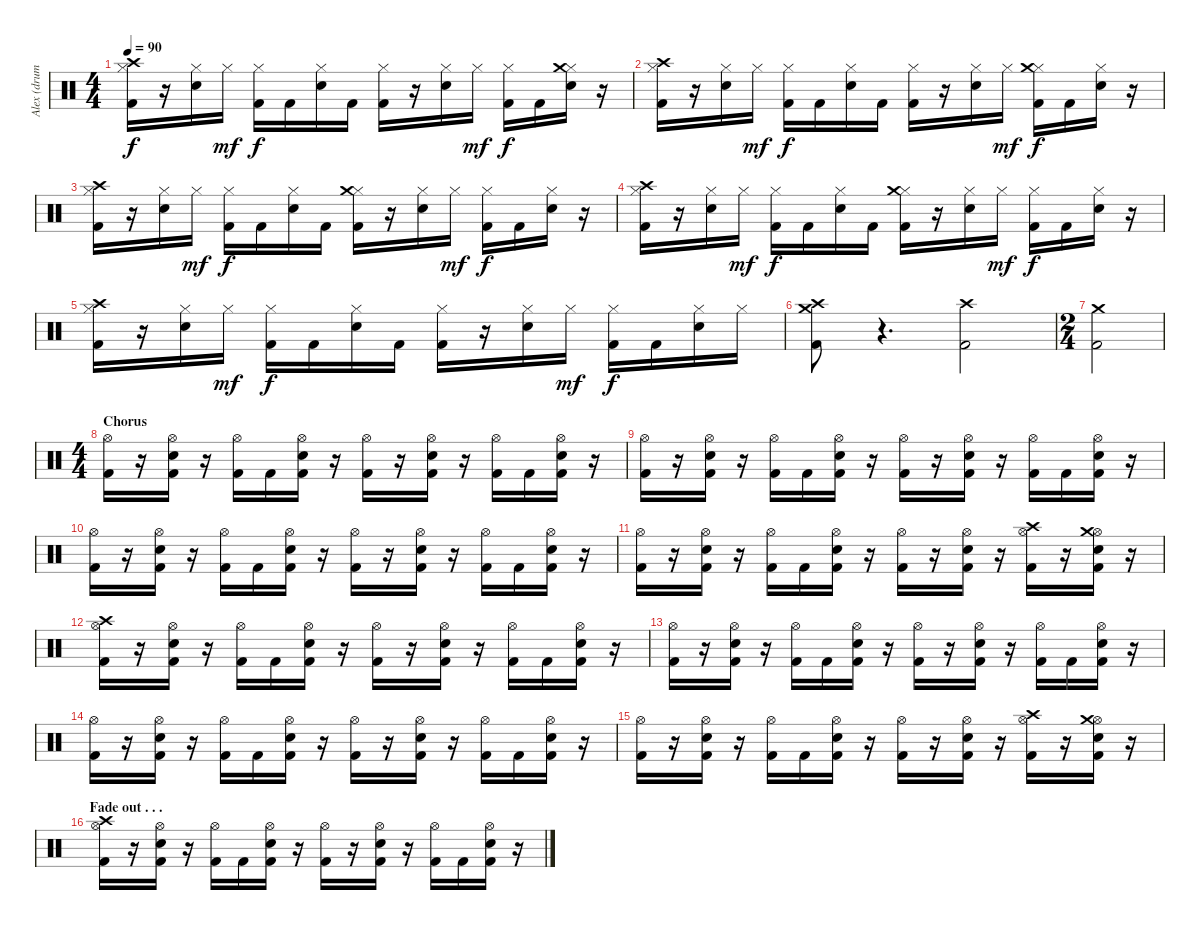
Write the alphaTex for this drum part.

\track ("Alex (drums)" "Alex (drum") {instrument percussion}
\staff {score}
\articulation defaults
\ts (4 4)
\tempo 90
\clef neutral
\ks c
("Hi-Hat (closed)" "Kick (hit) 2" "Crash high (hit)").16{dy f} r.16 ("Hi-Hat (closed)" "Snare (hit) 2").16 "Hi-Hat (closed)".16{dy mf} ("Hi-Hat (closed)" "Kick (hit) 2").16{dy f} "Kick (hit) 2".16 ("Hi-Hat (closed)" "Snare (hit) 2").16 "Kick (hit) 2".16 ("Hi-Hat (closed)" "Kick (hit) 2").16 r.16 ("Hi-Hat (closed)" "Snare (hit) 2").16 "Hi-Hat (closed)".16{dy mf} ("Hi-Hat (closed)" "Kick (hit) 2").16{dy f} "Kick (hit) 2".16 ("Hi-Hat (closed)" "Snare (hit) 2" "Crash medium (hit)").16 r.16 |
("Hi-Hat (closed)" "Kick (hit) 2" "Crash high (hit)").16 r.16 ("Hi-Hat (closed)" "Snare (hit) 2").16 "Hi-Hat (closed)".16{dy mf} ("Hi-Hat (closed)" "Kick (hit) 2").16{dy f} "Kick (hit) 2".16 ("Hi-Hat (closed)" "Snare (hit) 2").16 "Kick (hit) 2".16 ("Hi-Hat (closed)" "Kick (hit) 2").16 r.16 ("Hi-Hat (closed)" "Snare (hit) 2").16 "Hi-Hat (closed)".16{dy mf} ("Hi-Hat (closed)" "Kick (hit) 2" "Crash medium (hit)").16{dy f} "Kick (hit) 2".16 ("Hi-Hat (closed)" "Snare (hit) 2").16 r.16 |
("Hi-Hat (closed)" "Kick (hit) 2" "Crash high (hit)").16 r.16 ("Hi-Hat (closed)" "Snare (hit) 2").16 "Hi-Hat (closed)".16{dy mf} ("Hi-Hat (closed)" "Kick (hit) 2").16{dy f} "Kick (hit) 2".16 ("Hi-Hat (closed)" "Snare (hit) 2").16 "Kick (hit) 2".16 ("Hi-Hat (closed)" "Kick (hit) 2" "Crash medium (hit)").16 r.16 ("Hi-Hat (closed)" "Snare (hit) 2").16 "Hi-Hat (closed)".16{dy mf} ("Hi-Hat (closed)" "Kick (hit) 2").16{dy f} "Kick (hit) 2".16 ("Hi-Hat (closed)" "Snare (hit) 2").16 r.16 |
("Hi-Hat (closed)" "Kick (hit) 2" "Crash high (hit)").16 r.16 ("Hi-Hat (closed)" "Snare (hit) 2").16 "Hi-Hat (closed)".16{dy mf} ("Hi-Hat (closed)" "Kick (hit) 2").16{dy f} "Kick (hit) 2".16 ("Hi-Hat (closed)" "Snare (hit) 2").16 "Kick (hit) 2".16 ("Hi-Hat (closed)" "Kick (hit) 2" "Crash medium (hit)").16 r.16 ("Hi-Hat (closed)" "Snare (hit) 2").16 "Hi-Hat (closed)".16{dy mf} ("Hi-Hat (closed)" "Kick (hit) 2").16{dy f} "Kick (hit) 2".16 ("Hi-Hat (closed)" "Snare (hit) 2").16 r.16 |
("Hi-Hat (closed)" "Kick (hit) 2" "Crash high (hit)").16 r.16 ("Hi-Hat (closed)" "Snare (hit) 2").16 "Hi-Hat (closed)".16{dy mf} ("Hi-Hat (closed)" "Kick (hit) 2").16{dy f} "Kick (hit) 2".16 ("Hi-Hat (closed)" "Snare (hit) 2").16 "Kick (hit) 2".16 ("Hi-Hat (closed)" "Kick (hit) 2").16 r.16 ("Hi-Hat (closed)" "Snare (hit) 2").16 "Hi-Hat (closed)".16{dy mf} ("Hi-Hat (closed)" "Kick (hit) 2").16{dy f} "Kick (hit) 2".16 ("Hi-Hat (closed)" "Snare (hit) 2").16 "Hi-Hat (closed)".16 |
("Kick (hit) 2" "Crash medium (hit)" "Crash high (hit)").8 r.4{d} ("Kick (hit) 2" "Crash high (hit)").2 |
\ts (2 4)
("Kick (hit) 2" "Crash medium (hit)").2 |
\ts (4 4)
\section ("" "Chorus")
("Hi-Hat (open)" "Kick (hit) 2").16 r.16 ("Hi-Hat (open)" "Snare (hit) 2" "Kick (hit) 2").16 r.16 ("Hi-Hat (open)" "Kick (hit) 2").16 "Kick (hit) 2".16 ("Hi-Hat (open)" "Snare (hit) 2" "Kick (hit) 2").16 r.16 ("Hi-Hat (open)" "Kick (hit) 2").16 r.16 ("Hi-Hat (open)" "Snare (hit) 2" "Kick (hit) 2").16 r.16 ("Hi-Hat (open)" "Kick (hit) 2").16 "Kick (hit) 2".16 ("Hi-Hat (open)" "Snare (hit) 2" "Kick (hit) 2").16 r.16 |
("Hi-Hat (open)" "Kick (hit) 2").16 r.16 ("Hi-Hat (open)" "Snare (hit) 2" "Kick (hit) 2").16 r.16 ("Hi-Hat (open)" "Kick (hit) 2").16 "Kick (hit) 2".16 ("Hi-Hat (open)" "Snare (hit) 2" "Kick (hit) 2").16 r.16 ("Hi-Hat (open)" "Kick (hit) 2").16 r.16 ("Hi-Hat (open)" "Snare (hit) 2" "Kick (hit) 2").16 r.16 ("Hi-Hat (open)" "Kick (hit) 2").16 "Kick (hit) 2".16 ("Hi-Hat (open)" "Snare (hit) 2" "Kick (hit) 2").16 r.16 |
("Hi-Hat (open)" "Kick (hit) 2").16 r.16 ("Hi-Hat (open)" "Snare (hit) 2" "Kick (hit) 2").16 r.16 ("Hi-Hat (open)" "Kick (hit) 2").16 "Kick (hit) 2".16 ("Hi-Hat (open)" "Snare (hit) 2" "Kick (hit) 2").16 r.16 ("Hi-Hat (open)" "Kick (hit) 2").16 r.16 ("Hi-Hat (open)" "Snare (hit) 2" "Kick (hit) 2").16 r.16 ("Hi-Hat (open)" "Kick (hit) 2").16 "Kick (hit) 2".16 ("Hi-Hat (open)" "Snare (hit) 2" "Kick (hit) 2").16 r.16 |
("Hi-Hat (open)" "Kick (hit) 2").16 r.16 ("Hi-Hat (open)" "Snare (hit) 2" "Kick (hit) 2").16 r.16 ("Hi-Hat (open)" "Kick (hit) 2").16 "Kick (hit) 2".16 ("Hi-Hat (open)" "Snare (hit) 2" "Kick (hit) 2").16 r.16 ("Hi-Hat (open)" "Kick (hit) 2").16 r.16 ("Hi-Hat (open)" "Snare (hit) 2" "Kick (hit) 2").16 r.16 ("Hi-Hat (open)" "Kick (hit) 2" "Crash high (hit)").16 r.16 ("Hi-Hat (open)" "Snare (hit) 2" "Kick (hit) 2" "Crash medium (hit)").16 r.16 |
("Hi-Hat (open)" "Kick (hit) 2" "Crash high (hit)").16 r.16 ("Hi-Hat (open)" "Snare (hit) 2" "Kick (hit) 2").16 r.16 ("Hi-Hat (open)" "Kick (hit) 2").16 "Kick (hit) 2".16 ("Hi-Hat (open)" "Snare (hit) 2" "Kick (hit) 2").16 r.16 ("Hi-Hat (open)" "Kick (hit) 2").16 r.16 ("Hi-Hat (open)" "Snare (hit) 2" "Kick (hit) 2").16 r.16 ("Hi-Hat (open)" "Kick (hit) 2").16 "Kick (hit) 2".16 ("Hi-Hat (open)" "Snare (hit) 2" "Kick (hit) 2").16 r.16 |
("Hi-Hat (open)" "Kick (hit) 2").16 r.16 ("Hi-Hat (open)" "Snare (hit) 2" "Kick (hit) 2").16 r.16 ("Hi-Hat (open)" "Kick (hit) 2").16 "Kick (hit) 2".16 ("Hi-Hat (open)" "Snare (hit) 2" "Kick (hit) 2").16 r.16 ("Hi-Hat (open)" "Kick (hit) 2").16 r.16 ("Hi-Hat (open)" "Snare (hit) 2" "Kick (hit) 2").16 r.16 ("Hi-Hat (open)" "Kick (hit) 2").16 "Kick (hit) 2".16 ("Hi-Hat (open)" "Snare (hit) 2" "Kick (hit) 2").16 r.16 |
("Hi-Hat (open)" "Kick (hit) 2").16 r.16 ("Hi-Hat (open)" "Snare (hit) 2" "Kick (hit) 2").16 r.16 ("Hi-Hat (open)" "Kick (hit) 2").16 "Kick (hit) 2".16 ("Hi-Hat (open)" "Snare (hit) 2" "Kick (hit) 2").16 r.16 ("Hi-Hat (open)" "Kick (hit) 2").16 r.16 ("Hi-Hat (open)" "Snare (hit) 2" "Kick (hit) 2").16 r.16 ("Hi-Hat (open)" "Kick (hit) 2").16 "Kick (hit) 2".16 ("Hi-Hat (open)" "Snare (hit) 2" "Kick (hit) 2").16 r.16 |
("Hi-Hat (open)" "Kick (hit) 2").16 r.16 ("Hi-Hat (open)" "Snare (hit) 2" "Kick (hit) 2").16 r.16 ("Hi-Hat (open)" "Kick (hit) 2").16 "Kick (hit) 2".16 ("Hi-Hat (open)" "Snare (hit) 2" "Kick (hit) 2").16 r.16 ("Hi-Hat (open)" "Kick (hit) 2").16 r.16 ("Hi-Hat (open)" "Snare (hit) 2" "Kick (hit) 2").16 r.16 ("Hi-Hat (open)" "Kick (hit) 2" "Crash high (hit)").16 r.16 ("Hi-Hat (open)" "Snare (hit) 2" "Kick (hit) 2" "Crash medium (hit)").16 r.16 |
\section ("" "Fade out . . .")
("Hi-Hat (open)" "Kick (hit) 2" "Crash high (hit)").16 r.16 ("Hi-Hat (open)" "Snare (hit) 2" "Kick (hit) 2").16 r.16 ("Hi-Hat (open)" "Kick (hit) 2").16 "Kick (hit) 2".16 ("Hi-Hat (open)" "Snare (hit) 2" "Kick (hit) 2").16 r.16 ("Hi-Hat (open)" "Kick (hit) 2").16 r.16 ("Hi-Hat (open)" "Snare (hit) 2" "Kick (hit) 2").16 r.16 ("Hi-Hat (open)" "Kick (hit) 2").16 "Kick (hit) 2".16 ("Hi-Hat (open)" "Snare (hit) 2" "Kick (hit) 2").16 r.16
